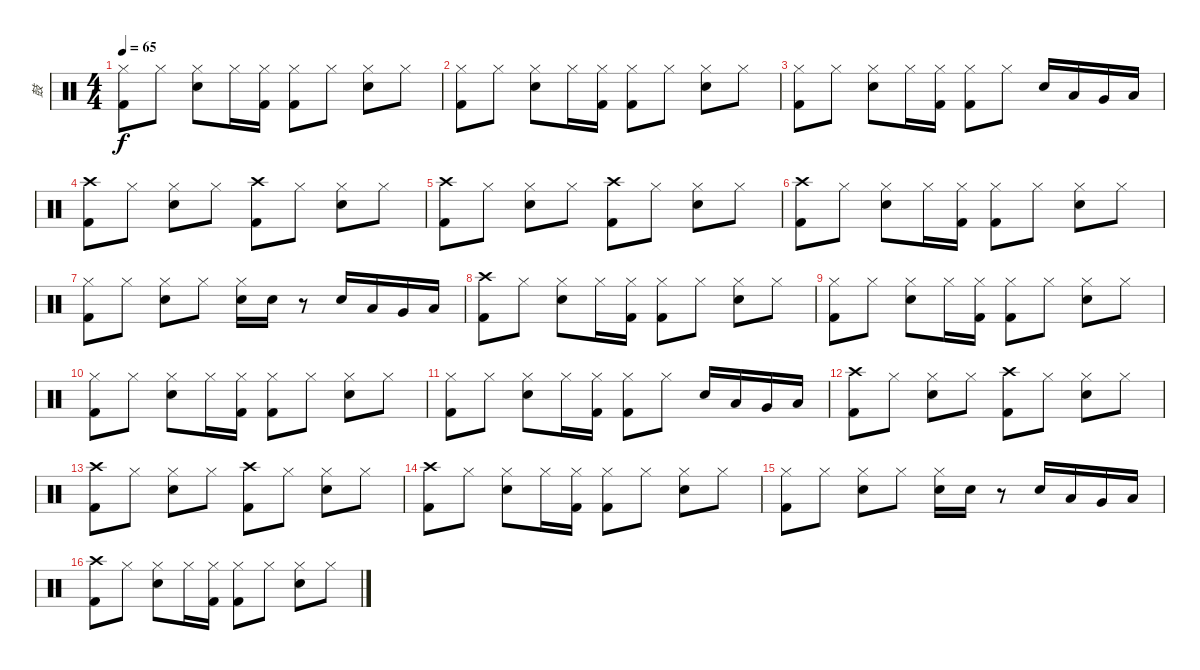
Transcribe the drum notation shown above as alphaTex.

\track ("鼓" "鼓") {instrument percussion}
\staff {score}
\articulation defaults
\ts (4 4)
\tempo 65
\clef neutral
\ks c
("Kick (hit) 2" "Hi-Hat (closed)").8{dy f} "Hi-Hat (closed)".8 ("Snare (hit) 2" "Hi-Hat (closed)").8 "Hi-Hat (closed)".16 ("Kick (hit) 2" "Hi-Hat (closed)").16 ("Kick (hit) 2" "Hi-Hat (closed)").8 "Hi-Hat (closed)".8 ("Snare (hit) 2" "Hi-Hat (closed)").8 "Hi-Hat (closed)".8 |
("Kick (hit) 2" "Hi-Hat (closed)").8 "Hi-Hat (closed)".8 ("Snare (hit) 2" "Hi-Hat (closed)").8 "Hi-Hat (closed)".16 ("Kick (hit) 2" "Hi-Hat (closed)").16 ("Kick (hit) 2" "Hi-Hat (closed)").8 "Hi-Hat (closed)".8 ("Snare (hit) 2" "Hi-Hat (closed)").8 "Hi-Hat (closed)".8 |
("Kick (hit) 2" "Hi-Hat (closed)").8 "Hi-Hat (closed)".8 ("Snare (hit) 2" "Hi-Hat (closed)").8 "Hi-Hat (closed)".16 ("Kick (hit) 2" "Hi-Hat (closed)").16 ("Kick (hit) 2" "Hi-Hat (closed)").8 "Hi-Hat (closed)".8 "Snare (hit) 2".16 "Low Floor Tom (hit)".16 "Very Low Tom (hit)".16 "Low Tom (hit)".16 |
("Kick (hit) 2" "Crash high (hit)").8 "Hi-Hat (closed)".8 ("Snare (hit) 2" "Hi-Hat (closed)").8 "Hi-Hat (closed)".8 ("Kick (hit) 2" "Crash high (hit)").8 "Hi-Hat (closed)".8 ("Snare (hit) 2" "Hi-Hat (closed)").8 "Hi-Hat (closed)".8 |
("Kick (hit) 2" "Crash high (hit)").8 "Hi-Hat (closed)".8 ("Snare (hit) 2" "Hi-Hat (closed)").8 "Hi-Hat (closed)".8 ("Kick (hit) 2" "Crash high (hit)").8 "Hi-Hat (closed)".8 ("Snare (hit) 2" "Hi-Hat (closed)").8 "Hi-Hat (closed)".8 |
("Kick (hit) 2" "Crash high (hit)").8 "Hi-Hat (closed)".8 ("Snare (hit) 2" "Hi-Hat (closed)").8 "Hi-Hat (closed)".16 ("Kick (hit) 2" "Hi-Hat (closed)").16 ("Kick (hit) 2" "Hi-Hat (closed)").8 "Hi-Hat (closed)".8 ("Snare (hit) 2" "Hi-Hat (closed)").8 "Hi-Hat (closed)".8 |
("Kick (hit) 2" "Hi-Hat (closed)").8 "Hi-Hat (closed)".8 ("Snare (hit) 2" "Hi-Hat (closed)").8 "Hi-Hat (closed)".8 ("Snare (hit) 2" "Hi-Hat (closed)").16 "Snare (hit) 2".16 r.8 "Snare (hit) 2".16 "Low Floor Tom (hit)".16 "Very Low Tom (hit)".16 "Low Tom (hit)".16 |
("Kick (hit) 2" "Crash high (hit)").8 "Hi-Hat (closed)".8 ("Snare (hit) 2" "Hi-Hat (closed)").8 "Hi-Hat (closed)".16 ("Kick (hit) 2" "Hi-Hat (closed)").16 ("Kick (hit) 2" "Hi-Hat (closed)").8 "Hi-Hat (closed)".8 ("Snare (hit) 2" "Hi-Hat (closed)").8 "Hi-Hat (closed)".8 |
("Kick (hit) 2" "Hi-Hat (closed)").8 "Hi-Hat (closed)".8 ("Snare (hit) 2" "Hi-Hat (closed)").8 "Hi-Hat (closed)".16 ("Kick (hit) 2" "Hi-Hat (closed)").16 ("Kick (hit) 2" "Hi-Hat (closed)").8 "Hi-Hat (closed)".8 ("Snare (hit) 2" "Hi-Hat (closed)").8 "Hi-Hat (closed)".8 |
("Kick (hit) 2" "Hi-Hat (closed)").8 "Hi-Hat (closed)".8 ("Snare (hit) 2" "Hi-Hat (closed)").8 "Hi-Hat (closed)".16 ("Kick (hit) 2" "Hi-Hat (closed)").16 ("Kick (hit) 2" "Hi-Hat (closed)").8 "Hi-Hat (closed)".8 ("Snare (hit) 2" "Hi-Hat (closed)").8 "Hi-Hat (closed)".8 |
("Kick (hit) 2" "Hi-Hat (closed)").8 "Hi-Hat (closed)".8 ("Snare (hit) 2" "Hi-Hat (closed)").8 "Hi-Hat (closed)".16 ("Kick (hit) 2" "Hi-Hat (closed)").16 ("Kick (hit) 2" "Hi-Hat (closed)").8 "Hi-Hat (closed)".8 "Snare (hit) 2".16 "Low Floor Tom (hit)".16 "Very Low Tom (hit)".16 "Low Tom (hit)".16 |
("Kick (hit) 2" "Crash high (hit)").8 "Hi-Hat (closed)".8 ("Snare (hit) 2" "Hi-Hat (closed)").8 "Hi-Hat (closed)".8 ("Kick (hit) 2" "Crash high (hit)").8 "Hi-Hat (closed)".8 ("Snare (hit) 2" "Hi-Hat (closed)").8 "Hi-Hat (closed)".8 |
("Kick (hit) 2" "Crash high (hit)").8 "Hi-Hat (closed)".8 ("Snare (hit) 2" "Hi-Hat (closed)").8 "Hi-Hat (closed)".8 ("Kick (hit) 2" "Crash high (hit)").8 "Hi-Hat (closed)".8 ("Snare (hit) 2" "Hi-Hat (closed)").8 "Hi-Hat (closed)".8 |
("Kick (hit) 2" "Crash high (hit)").8 "Hi-Hat (closed)".8 ("Snare (hit) 2" "Hi-Hat (closed)").8 "Hi-Hat (closed)".16 ("Kick (hit) 2" "Hi-Hat (closed)").16 ("Kick (hit) 2" "Hi-Hat (closed)").8 "Hi-Hat (closed)".8 ("Snare (hit) 2" "Hi-Hat (closed)").8 "Hi-Hat (closed)".8 |
("Kick (hit) 2" "Hi-Hat (closed)").8 "Hi-Hat (closed)".8 ("Snare (hit) 2" "Hi-Hat (closed)").8 "Hi-Hat (closed)".8 ("Snare (hit) 2" "Hi-Hat (closed)").16 "Snare (hit) 2".16 r.8 "Snare (hit) 2".16 "Low Floor Tom (hit)".16 "Very Low Tom (hit)".16 "Low Tom (hit)".16 |
("Kick (hit) 2" "Crash high (hit)").8 "Hi-Hat (closed)".8 ("Snare (hit) 2" "Hi-Hat (closed)").8 "Hi-Hat (closed)".16 ("Kick (hit) 2" "Hi-Hat (closed)").16 ("Kick (hit) 2" "Hi-Hat (closed)").8 "Hi-Hat (closed)".8 ("Snare (hit) 2" "Hi-Hat (closed)").8 "Hi-Hat (closed)".8
